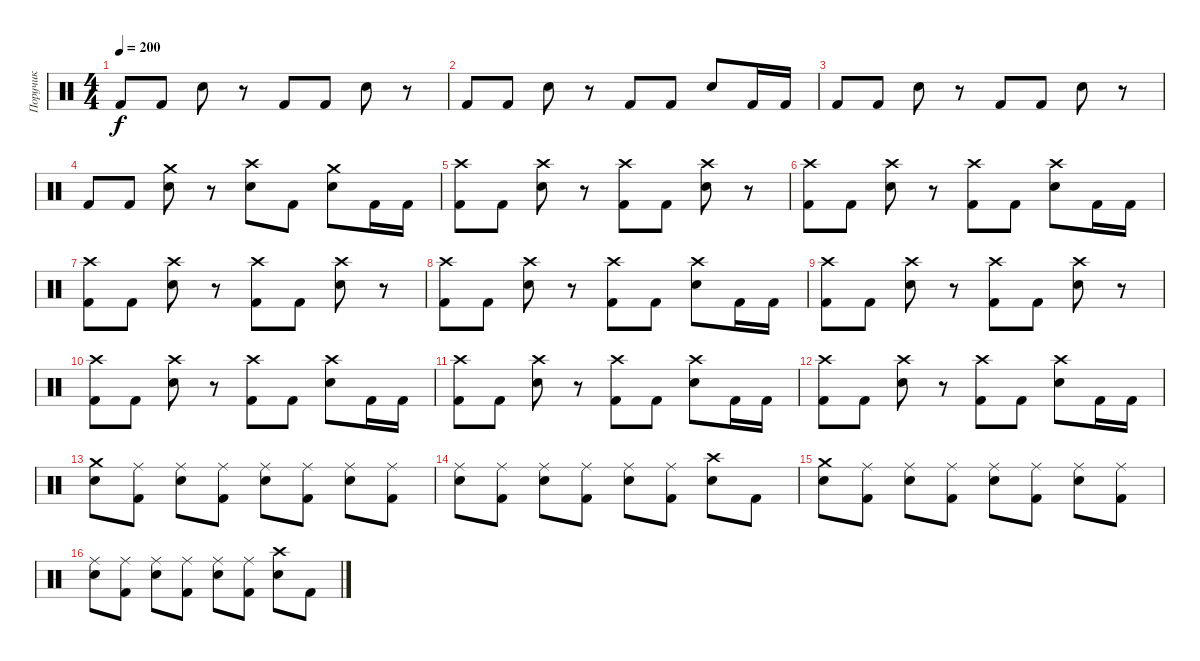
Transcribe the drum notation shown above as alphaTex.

\track ("Поручик" "Поручик") {instrument percussion}
\staff {score}
\articulation defaults
\ts (4 4)
\tempo 200
\clef neutral
\ks c "Kick (hit) 2".8{dy f} "Kick (hit) 2".8 "Electric Snare (hit)".8
r.8 "Kick (hit) 2".8 "Kick (hit) 2".8 "Electric Snare (hit)".8 r.8 |
"Kick (hit) 2".8 "Kick (hit) 2".8 "Electric Snare (hit)".8 r.8 "Kick (hit) 2".8 "Kick (hit) 2".8 "Electric Snare (hit)".8 "Kick (hit) 2".16 "Kick (hit) 2".16 |
"Kick (hit) 2".8 "Kick (hit) 2".8 "Electric Snare (hit)".8 r.8 "Kick (hit) 2".8 "Kick (hit) 2".8 "Electric Snare (hit)".8 r.8 |
"Kick (hit) 2".8 "Kick (hit) 2".8 ("Crash medium (hit)" "Electric Snare (hit)").8 r.8 ("Crash high (hit)" "Electric Snare (hit)").8 "Kick (hit) 2".8 ("Crash medium (hit)" "Electric Snare (hit)").8 "Kick (hit) 2".16 "Kick (hit) 2".16 |
("Crash high (hit)" "Kick (hit) 2").8 "Kick (hit) 2".8 ("Crash high (hit)" "Electric Snare (hit)").8 r.8 ("Crash high (hit)" "Kick (hit) 2").8 "Kick (hit) 2".8 ("Crash high (hit)" "Electric Snare (hit)").8 r.8 |
("Crash high (hit)" "Kick (hit) 2").8 "Kick (hit) 2".8 ("Crash high (hit)" "Electric Snare (hit)").8 r.8 ("Crash high (hit)" "Kick (hit) 2").8 "Kick (hit) 2".8 ("Crash high (hit)" "Electric Snare (hit)").8 "Kick (hit) 2".16 "Kick (hit) 2".16 |
("Crash high (hit)" "Kick (hit) 2").8 "Kick (hit) 2".8 ("Crash high (hit)" "Electric Snare (hit)").8 r.8 ("Crash high (hit)" "Kick (hit) 2").8 "Kick (hit) 2".8 ("Crash high (hit)" "Electric Snare (hit)").8 r.8 |
("Crash high (hit)" "Kick (hit) 2").8 "Kick (hit) 2".8 ("Crash high (hit)" "Electric Snare (hit)").8 r.8 ("Crash high (hit)" "Kick (hit) 2").8 "Kick (hit) 2".8 ("Crash high (hit)" "Electric Snare (hit)").8 "Kick (hit) 2".16 "Kick (hit) 2".16 |
("Crash high (hit)" "Kick (hit) 2").8 "Kick (hit) 2".8 ("Crash high (hit)" "Electric Snare (hit)").8 r.8 ("Crash high (hit)" "Kick (hit) 2").8 "Kick (hit) 2".8 ("Crash high (hit)" "Electric Snare (hit)").8 r.8 |
("Crash high (hit)" "Kick (hit) 2").8 "Kick (hit) 2".8 ("Crash high (hit)" "Electric Snare (hit)").8 r.8 ("Crash high (hit)" "Kick (hit) 2").8 "Kick (hit) 2".8 ("Crash high (hit)" "Electric Snare (hit)").8 "Kick (hit) 2".16 "Kick (hit) 2".16 |
("Crash high (hit)" "Kick (hit) 2").8 "Kick (hit) 2".8 ("Crash high (hit)" "Electric Snare (hit)").8 r.8 ("Crash high (hit)" "Kick (hit) 2").8 "Kick (hit) 2".8 ("Crash high (hit)" "Electric Snare (hit)").8 "Kick (hit) 2".16 "Kick (hit) 2".16 |
("Crash high (hit)" "Kick (hit) 2").8 "Kick (hit) 2".8 ("Crash high (hit)" "Electric Snare (hit)").8 r.8 ("Crash high (hit)" "Kick (hit) 2").8 "Kick (hit) 2".8 ("Crash high (hit)" "Electric Snare (hit)").8 "Kick (hit) 2".16 "Kick (hit) 2".16 |
("Crash medium (hit)" "Electric Snare (hit)").8 ("Ride (middle)" "Kick (hit) 2").8 ("Ride (middle)" "Electric Snare (hit)").8 ("Ride (middle)" "Kick (hit) 2").8 ("Ride (middle)" "Electric Snare (hit)").8 ("Ride (middle)" "Kick (hit) 2").8 ("Ride (middle)" "Electric Snare (hit)").8 ("Ride (middle)" "Kick (hit) 2").8 |
("Ride (middle)" "Electric Snare (hit)").8 ("Ride (middle)" "Kick (hit) 2").8 ("Ride (middle)" "Electric Snare (hit)").8 ("Ride (middle)" "Kick (hit) 2").8 ("Ride (middle)" "Electric Snare (hit)").8 ("Ride (middle)" "Kick (hit) 2").8 ("Crash high (hit)" "Electric Snare (hit)").8 "Kick (hit) 2".8 |
("Crash medium (hit)" "Electric Snare (hit)").8 ("Ride (middle)" "Kick (hit) 2").8 ("Ride (middle)" "Electric Snare (hit)").8 ("Ride (middle)" "Kick (hit) 2").8 ("Ride (middle)" "Electric Snare (hit)").8 ("Ride (middle)" "Kick (hit) 2").8 ("Ride (middle)" "Electric Snare (hit)").8 ("Ride (middle)" "Kick (hit) 2").8 |
("Ride (middle)" "Electric Snare (hit)").8 ("Ride (middle)" "Kick (hit) 2").8 ("Ride (middle)" "Electric Snare (hit)").8 ("Ride (middle)" "Kick (hit) 2").8 ("Ride (middle)" "Electric Snare (hit)").8 ("Ride (middle)" "Kick (hit) 2").8 ("Crash high (hit)" "Electric Snare (hit)").8 "Kick (hit) 2".8
